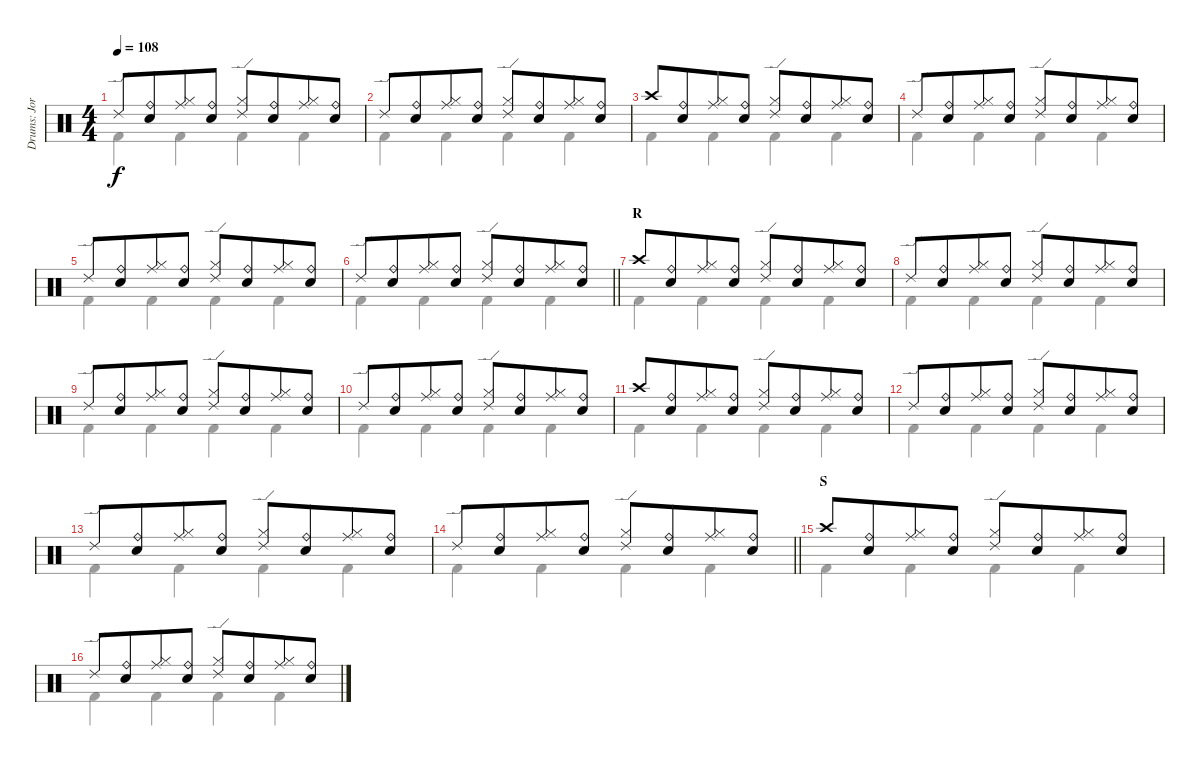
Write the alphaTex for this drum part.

\track ("Drums: Jorg" "Drums: Jor") {instrument percussion}
\staff {score}
\articulation defaults
\voice
\ts (4 4)
\tempo 108
\clef neutral
\ks c "Ride (edge) 2".8{dy f}
("Ride (bell)" "Snare (hit) 2").8{beam merge} ("Ride (middle)" "Hi-Hat (closed)").8 ("Ride (bell)" "Snare (hit) 2").8 ("Ride (edge) 2" "Hi-Hat (closed)").8 ("Ride (bell)" "Snare (hit) 2").8{beam merge} ("Ride (middle)" "Hi-Hat (closed)").8 ("Ride (bell)" "Snare (hit) 2").8 |
"Ride (edge) 2".8 ("Ride (bell)" "Snare (hit) 2").8{beam merge} ("Ride (middle)" "Hi-Hat (closed)").8 ("Ride (bell)" "Snare (hit) 2").8 ("Ride (edge) 2" "Hi-Hat (closed)").8 ("Ride (bell)" "Snare (hit) 2").8{beam merge} ("Ride (middle)" "Hi-Hat (closed)").8 ("Ride (bell)" "Snare (hit) 2").8 |
"Crash high (hit)".8 ("Ride (bell)" "Snare (hit) 2").8{beam merge} ("Ride (middle)" "Hi-Hat (closed)").8 ("Ride (bell)" "Snare (hit) 2").8 ("Ride (edge) 2" "Hi-Hat (closed)").8 ("Ride (bell)" "Snare (hit) 2").8{beam merge} ("Ride (middle)" "Hi-Hat (closed)").8 ("Ride (bell)" "Snare (hit) 2").8 |
"Ride (edge) 2".8 ("Ride (bell)" "Snare (hit) 2").8{beam merge} ("Ride (middle)" "Hi-Hat (closed)").8 ("Ride (bell)" "Snare (hit) 2").8 ("Ride (edge) 2" "Hi-Hat (closed)").8 ("Ride (bell)" "Snare (hit) 2").8{beam merge} ("Ride (middle)" "Hi-Hat (closed)").8 ("Ride (bell)" "Snare (hit) 2").8 |
"Ride (edge) 2".8 ("Ride (bell)" "Snare (hit) 2").8{beam merge} ("Ride (middle)" "Hi-Hat (closed)").8 ("Ride (bell)" "Snare (hit) 2").8 ("Ride (edge) 2" "Hi-Hat (closed)").8 ("Ride (bell)" "Snare (hit) 2").8{beam merge} ("Ride (middle)" "Hi-Hat (closed)").8 ("Ride (bell)" "Snare (hit) 2").8 |
\barLineRight lightlight "Ride (edge) 2".8
("Ride (bell)" "Snare (hit) 2").8{beam merge} ("Ride (middle)" "Hi-Hat (closed)").8 ("Ride (bell)" "Snare (hit) 2").8 ("Ride (edge) 2" "Hi-Hat (closed)").8 ("Ride (bell)" "Snare (hit) 2").8{beam merge} ("Ride (middle)" "Hi-Hat (closed)").8 ("Ride (bell)" "Snare (hit) 2").8 |
\section ("" "R")
"Crash high (hit)".8 ("Ride (bell)" "Snare (hit) 2").8{beam merge} ("Ride (middle)" "Hi-Hat (closed)").8 ("Ride (bell)" "Snare (hit) 2").8 ("Ride (edge) 2" "Hi-Hat (closed)").8 ("Ride (bell)" "Snare (hit) 2").8{beam merge} ("Ride (middle)" "Hi-Hat (closed)").8 ("Ride (bell)" "Snare (hit) 2").8 |
"Ride (edge) 2".8 ("Ride (bell)" "Snare (hit) 2").8{beam merge} ("Ride (middle)" "Hi-Hat (closed)").8 ("Ride (bell)" "Snare (hit) 2").8 ("Ride (edge) 2" "Hi-Hat (closed)").8 ("Ride (bell)" "Snare (hit) 2").8{beam merge} ("Ride (middle)" "Hi-Hat (closed)").8 ("Ride (bell)" "Snare (hit) 2").8 |
"Ride (edge) 2".8 ("Ride (bell)" "Snare (hit) 2").8{beam merge} ("Ride (middle)" "Hi-Hat (closed)").8 ("Ride (bell)" "Snare (hit) 2").8 ("Ride (edge) 2" "Hi-Hat (closed)").8 ("Ride (bell)" "Snare (hit) 2").8{beam merge} ("Ride (middle)" "Hi-Hat (closed)").8 ("Ride (bell)" "Snare (hit) 2").8 |
"Ride (edge) 2".8 ("Ride (bell)" "Snare (hit) 2").8{beam merge} ("Ride (middle)" "Hi-Hat (closed)").8 ("Ride (bell)" "Snare (hit) 2").8 ("Ride (edge) 2" "Hi-Hat (closed)").8 ("Ride (bell)" "Snare (hit) 2").8{beam merge} ("Ride (middle)" "Hi-Hat (closed)").8 ("Ride (bell)" "Snare (hit) 2").8 |
"Crash high (hit)".8 ("Ride (bell)" "Snare (hit) 2").8{beam merge} ("Ride (middle)" "Hi-Hat (closed)").8 ("Ride (bell)" "Snare (hit) 2").8 ("Ride (edge) 2" "Hi-Hat (closed)").8 ("Ride (bell)" "Snare (hit) 2").8{beam merge} ("Ride (middle)" "Hi-Hat (closed)").8 ("Ride (bell)" "Snare (hit) 2").8 |
"Ride (edge) 2".8 ("Ride (bell)" "Snare (hit) 2").8{beam merge} ("Ride (middle)" "Hi-Hat (closed)").8 ("Ride (bell)" "Snare (hit) 2").8 ("Ride (edge) 2" "Hi-Hat (closed)").8 ("Ride (bell)" "Snare (hit) 2").8{beam merge} ("Ride (middle)" "Hi-Hat (closed)").8 ("Ride (bell)" "Snare (hit) 2").8 |
"Ride (edge) 2".8 ("Ride (bell)" "Snare (hit) 2").8{beam merge} ("Ride (middle)" "Hi-Hat (closed)").8 ("Ride (bell)" "Snare (hit) 2").8 ("Ride (edge) 2" "Hi-Hat (closed)").8 ("Ride (bell)" "Snare (hit) 2").8{beam merge} ("Ride (middle)" "Hi-Hat (closed)").8 ("Ride (bell)" "Snare (hit) 2").8 |
\barLineRight lightlight "Ride (edge) 2".8
("Ride (bell)" "Snare (hit) 2").8{beam merge} ("Ride (middle)" "Hi-Hat (closed)").8 ("Ride (bell)" "Snare (hit) 2").8 ("Ride (edge) 2" "Hi-Hat (closed)").8 ("Ride (bell)" "Snare (hit) 2").8{beam merge} ("Ride (middle)" "Hi-Hat (closed)").8 ("Ride (bell)" "Snare (hit) 2").8 |
\section ("" "S")
"Crash high (hit)".8 ("Ride (bell)" "Snare (hit) 2").8{beam merge} ("Ride (middle)" "Hi-Hat (closed)").8 ("Ride (bell)" "Snare (hit) 2").8 ("Ride (edge) 2" "Hi-Hat (closed)").8 ("Ride (bell)" "Snare (hit) 2").8{beam merge} ("Ride (middle)" "Hi-Hat (closed)").8 ("Ride (bell)" "Snare (hit) 2").8 |
"Ride (edge) 2".8 ("Ride (bell)" "Snare (hit) 2").8{beam merge} ("Ride (middle)" "Hi-Hat (closed)").8 ("Ride (bell)" "Snare (hit) 2").8 ("Ride (edge) 2" "Hi-Hat (closed)").8 ("Ride (bell)" "Snare (hit) 2").8{beam merge} ("Ride (middle)" "Hi-Hat (closed)").8 ("Ride (bell)" "Snare (hit) 2").8
\voice
\clef neutral
\ottava regular
\simile none
\ks c "Kick (hit) 2".4{dy f} "Kick (hit) 2".4 "Kick (hit) 2".4 "Kick (hit) 2".4
|
"Kick (hit) 2".4 "Kick (hit) 2".4 "Kick (hit) 2".4 "Kick (hit) 2".4 |
"Kick (hit) 2".4 "Kick (hit) 2".4 "Kick (hit) 2".4 "Kick (hit) 2".4 |
"Kick (hit) 2".4 "Kick (hit) 2".4 "Kick (hit) 2".4 "Kick (hit) 2".4 |
"Kick (hit) 2".4 "Kick (hit) 2".4 "Kick (hit) 2".4 "Kick (hit) 2".4 |
\barLineRight lightlight "Kick (hit) 2".4 "Kick (hit) 2".4 "Kick (hit) 2".4 "Kick (hit) 2".4
|
"Kick (hit) 2".4 "Kick (hit) 2".4 "Kick (hit) 2".4 "Kick (hit) 2".4 |
"Kick (hit) 2".4 "Kick (hit) 2".4 "Kick (hit) 2".4 "Kick (hit) 2".4 |
"Kick (hit) 2".4 "Kick (hit) 2".4 "Kick (hit) 2".4 "Kick (hit) 2".4 |
"Kick (hit) 2".4 "Kick (hit) 2".4 "Kick (hit) 2".4 "Kick (hit) 2".4 |
"Kick (hit) 2".4 "Kick (hit) 2".4 "Kick (hit) 2".4 "Kick (hit) 2".4 |
"Kick (hit) 2".4 "Kick (hit) 2".4 "Kick (hit) 2".4 "Kick (hit) 2".4 |
"Kick (hit) 2".4 "Kick (hit) 2".4 "Kick (hit) 2".4 "Kick (hit) 2".4 |
\barLineRight lightlight "Kick (hit) 2".4 "Kick (hit) 2".4 "Kick (hit) 2".4 "Kick (hit) 2".4
|
"Kick (hit) 2".4 "Kick (hit) 2".4 "Kick (hit) 2".4 "Kick (hit) 2".4 |
"Kick (hit) 2".4 "Kick (hit) 2".4 "Kick (hit) 2".4 "Kick (hit) 2".4
